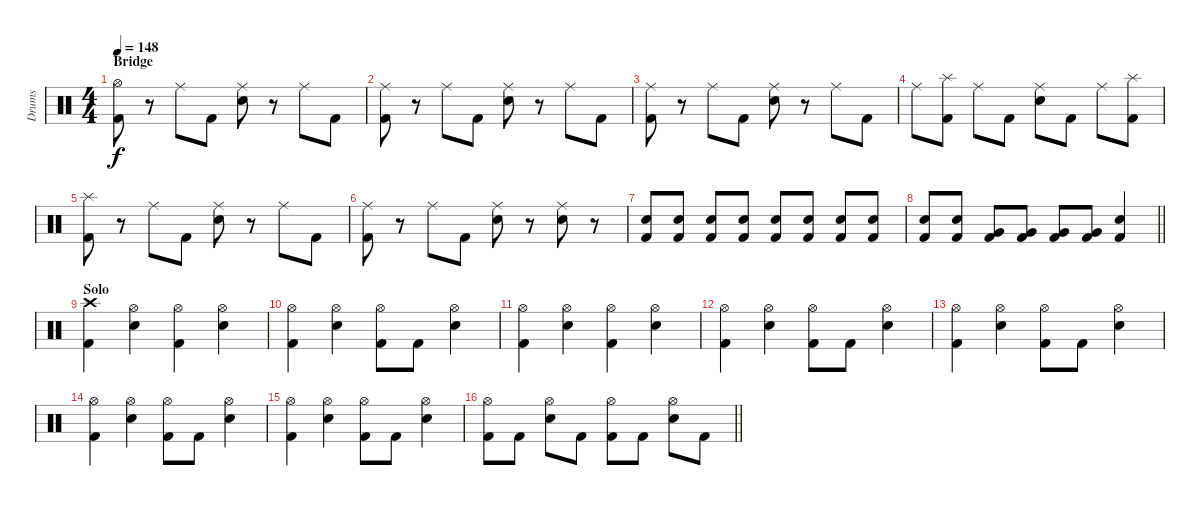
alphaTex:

\track ("Drums" "Drums") {instrument percussion}
\staff {score}
\articulation defaults
\ts (4 4)
\section ("" "Bridge")
\tempo 148
\clef neutral
\ks c
("Hi-Hat (open)" "Kick (hit) 2").8{dy f} r.8 "Ride (middle)".8 "Kick (hit) 2".8 ("Ride (middle)" "Snare (hit) 2").8 r.8 "Ride (middle)".8 "Kick (hit) 2".8 |
("Ride (middle)" "Kick (hit) 2").8 r.8 "Ride (middle)".8 "Kick (hit) 2".8 ("Ride (middle)" "Snare (hit) 2").8 r.8 "Ride (middle)".8 "Kick (hit) 2".8 |
("Ride (middle)" "Kick (hit) 2").8 r.8 "Ride (middle)".8 "Kick (hit) 2".8 ("Ride (middle)" "Snare (hit) 2").8 r.8 "Ride (middle)".8 "Kick (hit) 2".8 |
"Ride (middle)".8 ("Splash (hit)" "Kick (hit) 2").8 "Ride (middle)".8 "Kick (hit) 2".8 ("Ride (middle)" "Snare (hit) 2").8 "Kick (hit) 2".8 "Ride (middle)".8 ("Splash (hit)" "Kick (hit) 2").8 |
("Splash (hit)" "Kick (hit) 2").8 r.8 "Ride (middle)".8 "Kick (hit) 2".8 ("Ride (middle)" "Snare (hit) 2").8 r.8 "Ride (middle)".8 "Kick (hit) 2".8 |
("Ride (middle)" "Kick (hit) 2").8 r.8 "Ride (middle)".8 "Kick (hit) 2".8 ("Ride (middle)" "Snare (hit) 2").8 r.8 ("Ride (middle)" "Snare (hit) 2").8 r.8 |
("Snare (hit) 2" "Kick (hit) 2").8 ("Snare (hit) 2" "Kick (hit) 2").8 ("Snare (hit) 2" "Kick (hit) 2").8 ("Snare (hit) 2" "Kick (hit) 2").8 ("Snare (hit) 2" "Kick (hit) 2").8 ("Snare (hit) 2" "Kick (hit) 2").8 ("Snare (hit) 2" "Kick (hit) 2").8 ("Snare (hit) 2" "Kick (hit) 2").8 |
\barLineRight lightlight
("Snare (hit) 2" "Kick (hit) 2").8 ("Snare (hit) 2" "Kick (hit) 2").8 ("Very Low Tom (hit)" "Kick (hit) 2").8 ("Very Low Tom (hit)" "Kick (hit) 2").8 ("Very Low Tom (hit)" "Kick (hit) 2").8 ("Very Low Tom (hit)" "Kick (hit) 2").8 ("Snare (hit) 2" "Kick (hit) 2").4 |
\section ("" "Solo")
("Crash high (hit)" "Kick (hit) 2").4 ("Hi-Hat (open)" "Snare (hit) 2").4 ("Hi-Hat (open)" "Kick (hit) 2").4 ("Hi-Hat (open)" "Snare (hit) 2").4 |
("Hi-Hat (open)" "Kick (hit) 2").4 ("Hi-Hat (open)" "Snare (hit) 2").4 ("Hi-Hat (open)" "Kick (hit) 2").8 "Kick (hit) 2".8 ("Hi-Hat (open)" "Snare (hit) 2").4 |
("Hi-Hat (open)" "Kick (hit) 2").4 ("Hi-Hat (open)" "Snare (hit) 2").4 ("Hi-Hat (open)" "Kick (hit) 2").4 ("Hi-Hat (open)" "Snare (hit) 2").4 |
("Hi-Hat (open)" "Kick (hit) 2").4 ("Hi-Hat (open)" "Snare (hit) 2").4 ("Hi-Hat (open)" "Kick (hit) 2").8 "Kick (hit) 2".8 ("Hi-Hat (open)" "Snare (hit) 2").4 |
("Hi-Hat (open)" "Kick (hit) 2").4 ("Hi-Hat (open)" "Snare (hit) 2").4 ("Hi-Hat (open)" "Kick (hit) 2").8 "Kick (hit) 2".8 ("Hi-Hat (open)" "Snare (hit) 2").4 |
("Hi-Hat (open)" "Kick (hit) 2").4 ("Hi-Hat (open)" "Snare (hit) 2").4 ("Hi-Hat (open)" "Kick (hit) 2").8 "Kick (hit) 2".8 ("Hi-Hat (open)" "Snare (hit) 2").4 |
("Hi-Hat (open)" "Kick (hit) 2").4 ("Hi-Hat (open)" "Snare (hit) 2").4 ("Hi-Hat (open)" "Kick (hit) 2").8 "Kick (hit) 2".8 ("Hi-Hat (open)" "Snare (hit) 2").4 |
\barLineRight lightlight
("Hi-Hat (open)" "Kick (hit) 2").8 "Kick (hit) 2".8 ("Hi-Hat (open)" "Snare (hit) 2").8 "Kick (hit) 2".8 ("Hi-Hat (open)" "Kick (hit) 2").8 "Kick (hit) 2".8 ("Hi-Hat (open)" "Snare (hit) 2").8 "Kick (hit) 2".8
